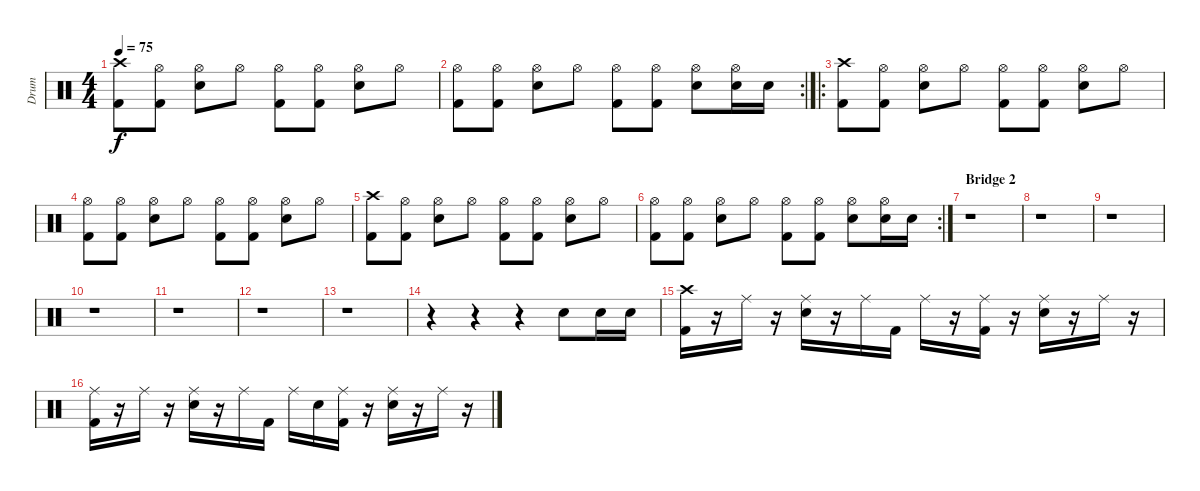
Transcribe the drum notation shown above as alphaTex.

\track ("Drum" "Drum") {instrument percussion}
\staff {score}
\articulation defaults
\ts (4 4)
\tempo 75
\clef neutral
\ks c
("Crash high (hit)" "Kick (hit) 2").8{dy f} ("Hi-Hat (open)" "Kick (hit) 2").8 ("Hi-Hat (open)" "Electric Snare (hit)").8 "Hi-Hat (open)".8 ("Hi-Hat (open)" "Kick (hit) 2").8 ("Hi-Hat (open)" "Kick (hit) 2").8 ("Hi-Hat (open)" "Electric Snare (hit)").8 "Hi-Hat (open)".8 |
\rc 2
("Hi-Hat (open)" "Kick (hit) 2").8 ("Hi-Hat (open)" "Kick (hit) 2").8 ("Hi-Hat (open)" "Electric Snare (hit)").8 "Hi-Hat (open)".8 ("Hi-Hat (open)" "Kick (hit) 2").8 ("Hi-Hat (open)" "Kick (hit) 2").8 ("Hi-Hat (open)" "Electric Snare (hit)").8 ("Hi-Hat (open)" "Electric Snare (hit)").16 "Electric Snare (hit)".16 |
\ro
("Crash high (hit)" "Kick (hit) 2").8 ("Hi-Hat (open)" "Kick (hit) 2").8 ("Hi-Hat (open)" "Electric Snare (hit)").8 "Hi-Hat (open)".8 ("Hi-Hat (open)" "Kick (hit) 2").8 ("Hi-Hat (open)" "Kick (hit) 2").8 ("Hi-Hat (open)" "Electric Snare (hit)").8 "Hi-Hat (open)".8 |
("Hi-Hat (open)" "Kick (hit) 2").8 ("Hi-Hat (open)" "Kick (hit) 2").8 ("Hi-Hat (open)" "Electric Snare (hit)").8 "Hi-Hat (open)".8 ("Hi-Hat (open)" "Kick (hit) 2").8 ("Hi-Hat (open)" "Kick (hit) 2").8 ("Hi-Hat (open)" "Electric Snare (hit)").8 "Hi-Hat (open)".8 |
("Crash high (hit)" "Kick (hit) 2").8 ("Hi-Hat (open)" "Kick (hit) 2").8 ("Hi-Hat (open)" "Electric Snare (hit)").8 "Hi-Hat (open)".8 ("Hi-Hat (open)" "Kick (hit) 2").8 ("Hi-Hat (open)" "Kick (hit) 2").8 ("Hi-Hat (open)" "Electric Snare (hit)").8 "Hi-Hat (open)".8 |
\rc 2
("Hi-Hat (open)" "Kick (hit) 2").8 ("Hi-Hat (open)" "Kick (hit) 2").8 ("Hi-Hat (open)" "Electric Snare (hit)").8 "Hi-Hat (open)".8 ("Hi-Hat (open)" "Kick (hit) 2").8 ("Hi-Hat (open)" "Kick (hit) 2").8 ("Hi-Hat (open)" "Electric Snare (hit)").8 ("Hi-Hat (open)" "Electric Snare (hit)").16 "Electric Snare (hit)".16 |
\section ("" "Bridge 2")
r.1 |
r.1 |
r.1 |
r.1 |
r.1 |
r.1 |
r.1 |
r.4 r.4 r.4 "Electric Snare (hit)".8 "Electric Snare (hit)".16 "Electric Snare (hit)".16 |
("Crash high (hit)" "Kick (hit) 2").16 r.16 "Ride (middle)".16 r.16 ("Ride (middle)" "Electric Snare (hit)").16 r.16 "Ride (middle)".16 "Kick (hit) 2".16 "Ride (middle)".16 r.16 ("Ride (middle)" "Kick (hit) 2").16 r.16 ("Ride (middle)" "Electric Snare (hit)").16 r.16 "Ride (middle)".16 r.16 |
("Ride (middle)" "Kick (hit) 2").16 r.16 "Ride (middle)".16 r.16 ("Ride (middle)" "Electric Snare (hit)").16 r.16 "Ride (middle)".16 "Kick (hit) 2".16 "Ride (middle)".16 "Electric Snare (hit)".16 ("Ride (middle)" "Kick (hit) 2").16 r.16 ("Ride (middle)" "Electric Snare (hit)").16 r.16 "Ride (middle)".16 r.16
